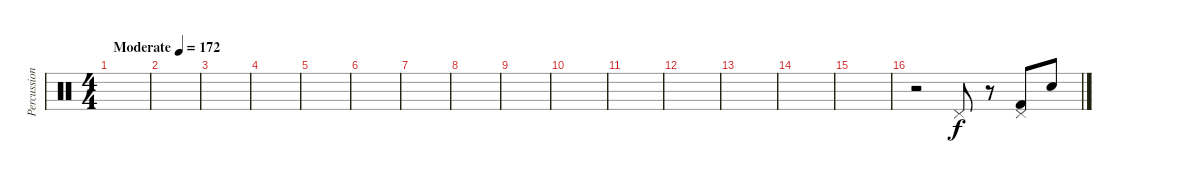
\track ("Percussion" "Percussion") {instrument percussion}
\staff {score}
\articulation defaults
\ts (4 4)
\tempo (172 "Moderate")
\clef neutral
\ks c
|
|
|
|
|
|
|
|
|
|
|
|
|
|
|
r.2 "Pedal Hi-Hat (hit)".8 r.8 ("Pedal Hi-Hat (hit)" "Kick (hit) 2").8 "Snare (hit) 2".8
